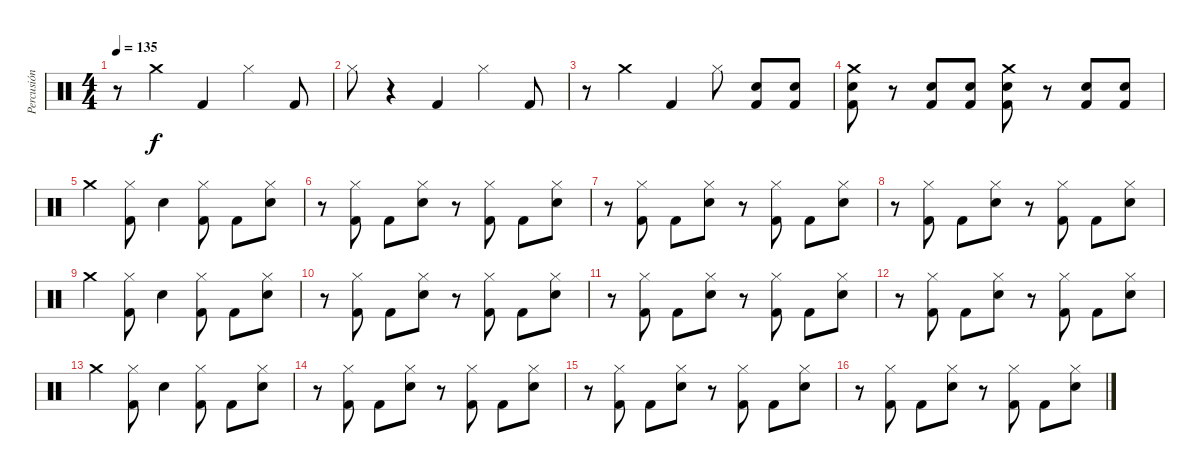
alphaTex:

\track ("Percusión" "Percusión") {instrument percussion}
\staff {score}
\articulation defaults
\ts (4 4)
\tempo 135
\clef neutral
\ks c
r.8{dy f} "Crash medium (hit)".4 "Kick (hit) 2".4 "Hi-Hat (closed)".4 "Kick (hit) 2".8 |
"Hi-Hat (closed)".8 r.4 "Kick (hit) 2".4 "Hi-Hat (closed)".4 "Kick (hit) 2".8 |
r.8 "Crash medium (hit)".4 "Kick (hit) 2".4 "Hi-Hat (closed)".8 ("Snare (hit) 2" "Kick (hit) 2").8 ("Snare (hit) 2" "Kick (hit) 2").8 |
("Crash medium (hit)" "Snare (hit) 2" "Kick (hit) 2").8 r.8 ("Snare (hit) 2" "Kick (hit) 2").8 ("Snare (hit) 2" "Kick (hit) 2").8 ("Crash medium (hit)" "Snare (hit) 2" "Kick (hit) 2").8 r.8 ("Snare (hit) 2" "Kick (hit) 2").8 ("Snare (hit) 2" "Kick (hit) 2").8 |
"Crash medium (hit)".4 ("Hi-Hat (closed)" "Kick (hit) 2").8 "Snare (hit) 2".4 ("Hi-Hat (closed)" "Kick (hit) 2").8 "Kick (hit) 2".8 ("Snare (hit) 2" "Hi-Hat (closed)").8 |
r.8 ("Hi-Hat (closed)" "Kick (hit) 2").8 "Kick (hit) 2".8 ("Snare (hit) 2" "Hi-Hat (closed)").8 r.8 ("Hi-Hat (closed)" "Kick (hit) 2").8 "Kick (hit) 2".8 ("Snare (hit) 2" "Hi-Hat (closed)").8 |
r.8 ("Hi-Hat (closed)" "Kick (hit) 2").8 "Kick (hit) 2".8 ("Snare (hit) 2" "Hi-Hat (closed)").8 r.8 ("Hi-Hat (closed)" "Kick (hit) 2").8 "Kick (hit) 2".8 ("Snare (hit) 2" "Hi-Hat (closed)").8 |
r.8 ("Hi-Hat (closed)" "Kick (hit) 2").8 "Kick (hit) 2".8 ("Snare (hit) 2" "Hi-Hat (closed)").8 r.8 ("Hi-Hat (closed)" "Kick (hit) 2").8 "Kick (hit) 2".8 ("Snare (hit) 2" "Hi-Hat (closed)").8 |
"Crash medium (hit)".4 ("Hi-Hat (closed)" "Kick (hit) 2").8 "Snare (hit) 2".4 ("Hi-Hat (closed)" "Kick (hit) 2").8 "Kick (hit) 2".8 ("Snare (hit) 2" "Hi-Hat (closed)").8 |
r.8 ("Hi-Hat (closed)" "Kick (hit) 2").8 "Kick (hit) 2".8 ("Snare (hit) 2" "Hi-Hat (closed)").8 r.8 ("Hi-Hat (closed)" "Kick (hit) 2").8 "Kick (hit) 2".8 ("Snare (hit) 2" "Hi-Hat (closed)").8 |
r.8 ("Hi-Hat (closed)" "Kick (hit) 2").8 "Kick (hit) 2".8 ("Snare (hit) 2" "Hi-Hat (closed)").8 r.8 ("Hi-Hat (closed)" "Kick (hit) 2").8 "Kick (hit) 2".8 ("Snare (hit) 2" "Hi-Hat (closed)").8 |
r.8 ("Hi-Hat (closed)" "Kick (hit) 2").8 "Kick (hit) 2".8 ("Snare (hit) 2" "Hi-Hat (closed)").8 r.8 ("Hi-Hat (closed)" "Kick (hit) 2").8 "Kick (hit) 2".8 ("Snare (hit) 2" "Hi-Hat (closed)").8 |
"Crash medium (hit)".4 ("Hi-Hat (closed)" "Kick (hit) 2").8 "Snare (hit) 2".4 ("Hi-Hat (closed)" "Kick (hit) 2").8 "Kick (hit) 2".8 ("Snare (hit) 2" "Hi-Hat (closed)").8 |
r.8 ("Hi-Hat (closed)" "Kick (hit) 2").8 "Kick (hit) 2".8 ("Snare (hit) 2" "Hi-Hat (closed)").8 r.8 ("Hi-Hat (closed)" "Kick (hit) 2").8 "Kick (hit) 2".8 ("Snare (hit) 2" "Hi-Hat (closed)").8 |
r.8 ("Hi-Hat (closed)" "Kick (hit) 2").8 "Kick (hit) 2".8 ("Snare (hit) 2" "Hi-Hat (closed)").8 r.8 ("Hi-Hat (closed)" "Kick (hit) 2").8 "Kick (hit) 2".8 ("Snare (hit) 2" "Hi-Hat (closed)").8 |
r.8 ("Hi-Hat (closed)" "Kick (hit) 2").8 "Kick (hit) 2".8 ("Snare (hit) 2" "Hi-Hat (closed)").8 r.8 ("Hi-Hat (closed)" "Kick (hit) 2").8 "Kick (hit) 2".8 ("Snare (hit) 2" "Hi-Hat (closed)").8
